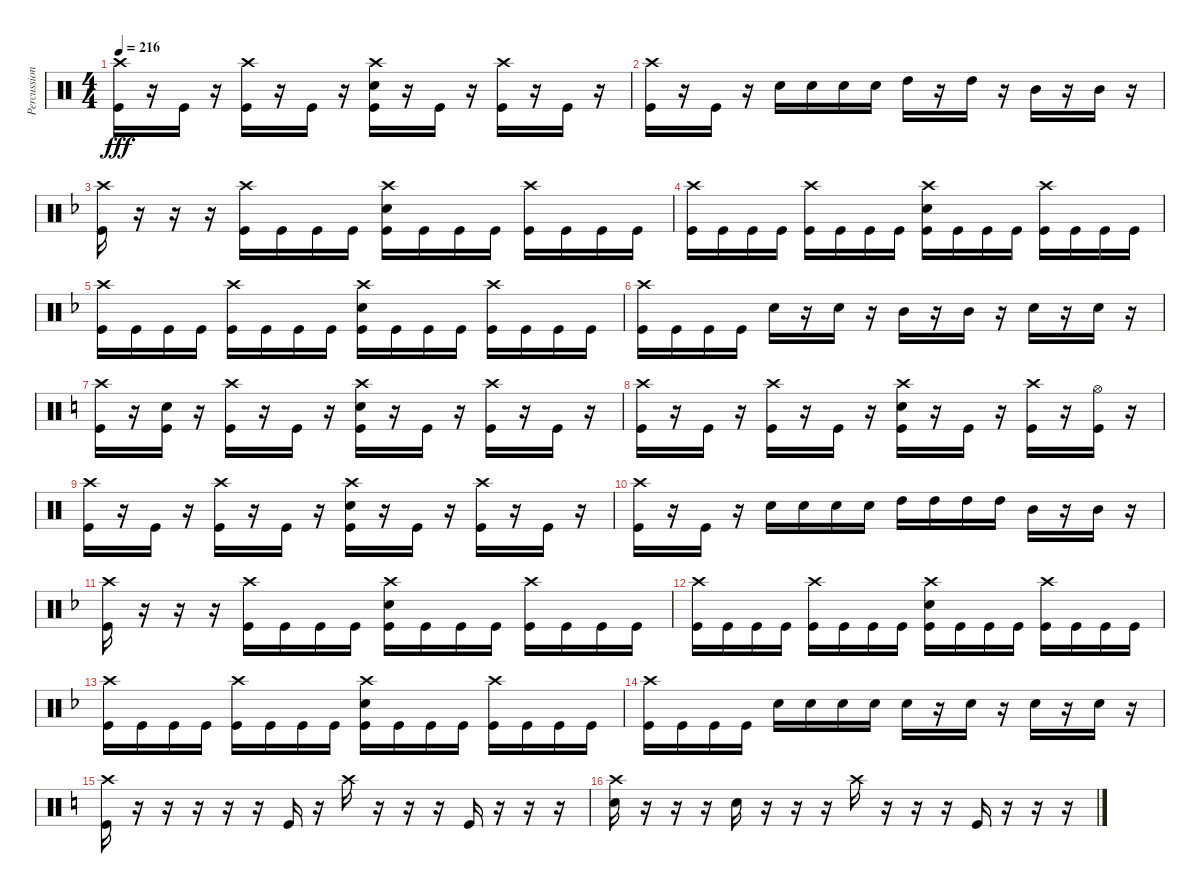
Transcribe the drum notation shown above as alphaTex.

\track ("Percussion" "Percussion") {instrument percussion}
\staff {score}
\articulation defaults
\ts (4 4)
\tempo 216
\clef neutral
\ks c
("Crash high (hit)" "Kick (hit)").16{dy fff} r.16 "Kick (hit)".16 r.16 ("Crash high (hit)" "Kick (hit)").16 r.16 "Kick (hit)".16 r.16 ("Crash high (hit)" "Electric Snare (hit)" "Kick (hit)").16 r.16 "Kick (hit)".16 r.16 ("Crash high (hit)" "Kick (hit)").16 r.16 "Kick (hit)".16 r.16 |
("Crash high (hit)" "Kick (hit)").16 r.16 "Kick (hit)".16 r.16 "Electric Snare (hit)".16 "Electric Snare (hit)".16 "Electric Snare (hit)".16 "Electric Snare (hit)".16 "High Tom (hit)".16 r.16 "High Tom (hit)".16 r.16 "Mid Tom (hit)".16 r.16 "Mid Tom (hit)".16 r.16 |
\ks f
("Crash high (hit)" "Kick (hit)").16 r.16 r.16 r.16 ("Crash high (hit)" "Kick (hit)").16 "Kick (hit)".16 "Kick (hit)".16 "Kick (hit)".16 ("Crash high (hit)" "Electric Snare (hit)" "Kick (hit)").16 "Kick (hit)".16 "Kick (hit)".16 "Kick (hit)".16 ("Crash high (hit)" "Kick (hit)").16 "Kick (hit)".16 "Kick (hit)".16 "Kick (hit)".16 |
("Crash high (hit)" "Kick (hit)").16 "Kick (hit)".16 "Kick (hit)".16 "Kick (hit)".16 ("Crash high (hit)" "Kick (hit)").16 "Kick (hit)".16 "Kick (hit)".16 "Kick (hit)".16 ("Crash high (hit)" "Electric Snare (hit)" "Kick (hit)").16 "Kick (hit)".16 "Kick (hit)".16 "Kick (hit)".16 ("Crash high (hit)" "Kick (hit)").16 "Kick (hit)".16 "Kick (hit)".16 "Kick (hit)".16 |
("Crash high (hit)" "Kick (hit)").16 "Kick (hit)".16 "Kick (hit)".16 "Kick (hit)".16 ("Crash high (hit)" "Kick (hit)").16 "Kick (hit)".16 "Kick (hit)".16 "Kick (hit)".16 ("Crash high (hit)" "Electric Snare (hit)" "Kick (hit)").16 "Kick (hit)".16 "Kick (hit)".16 "Kick (hit)".16 ("Crash high (hit)" "Kick (hit)").16 "Kick (hit)".16 "Kick (hit)".16 "Kick (hit)".16 |
("Crash high (hit)" "Kick (hit)").16 "Kick (hit)".16 "Kick (hit)".16 "Kick (hit)".16 "Electric Snare (hit)".16 r.16 "Electric Snare (hit)".16 r.16 "Mid Tom (hit)".16 r.16 "Mid Tom (hit)".16 r.16 "Electric Snare (hit)".16 r.16 "Electric Snare (hit)".16 r.16 |
\ks c
("Crash high (hit)" "Kick (hit)").16 r.16 ("Electric Snare (hit)" "Kick (hit)").16 r.16 ("Crash high (hit)" "Kick (hit)").16 r.16 "Kick (hit)".16 r.16 ("Crash high (hit)" "Electric Snare (hit)" "Kick (hit)").16 r.16 "Kick (hit)".16 r.16 ("Crash high (hit)" "Kick (hit)").16 r.16 "Kick (hit)".16 r.16 |
("Crash high (hit)" "Kick (hit)").16 r.16 "Kick (hit)".16 r.16 ("Crash high (hit)" "Kick (hit)").16 r.16 "Kick (hit)".16 r.16 ("Crash high (hit)" "Electric Snare (hit)" "Kick (hit)").16 r.16 "Kick (hit)".16 r.16 ("Crash high (hit)" "Kick (hit)").16 r.16 ("Hi-Hat (open)" "Kick (hit)").16 r.16 |
("Crash high (hit)" "Kick (hit)").16 r.16 "Kick (hit)".16 r.16 ("Crash high (hit)" "Kick (hit)").16 r.16 "Kick (hit)".16 r.16 ("Crash high (hit)" "Electric Snare (hit)" "Kick (hit)").16 r.16 "Kick (hit)".16 r.16 ("Crash high (hit)" "Kick (hit)").16 r.16 "Kick (hit)".16 r.16 |
("Crash high (hit)" "Kick (hit)").16 r.16 "Kick (hit)".16 r.16 "Electric Snare (hit)".16 "Electric Snare (hit)".16 "Electric Snare (hit)".16 "Electric Snare (hit)".16 "High Tom (hit)".16 "High Tom (hit)".16 "High Tom (hit)".16 "High Tom (hit)".16 "Mid Tom (hit)".16 r.16 "Mid Tom (hit)".16 r.16 |
\ks f
("Crash high (hit)" "Kick (hit)").16 r.16 r.16 r.16 ("Crash high (hit)" "Kick (hit)").16 "Kick (hit)".16 "Kick (hit)".16 "Kick (hit)".16 ("Crash high (hit)" "Electric Snare (hit)" "Kick (hit)").16 "Kick (hit)".16 "Kick (hit)".16 "Kick (hit)".16 ("Crash high (hit)" "Kick (hit)").16 "Kick (hit)".16 "Kick (hit)".16 "Kick (hit)".16 |
("Crash high (hit)" "Kick (hit)").16 "Kick (hit)".16 "Kick (hit)".16 "Kick (hit)".16 ("Crash high (hit)" "Kick (hit)").16 "Kick (hit)".16 "Kick (hit)".16 "Kick (hit)".16 ("Crash high (hit)" "Electric Snare (hit)" "Kick (hit)").16 "Kick (hit)".16 "Kick (hit)".16 "Kick (hit)".16 ("Crash high (hit)" "Kick (hit)").16 "Kick (hit)".16 "Kick (hit)".16 "Kick (hit)".16 |
("Crash high (hit)" "Kick (hit)").16 "Kick (hit)".16 "Kick (hit)".16 "Kick (hit)".16 ("Crash high (hit)" "Kick (hit)").16 "Kick (hit)".16 "Kick (hit)".16 "Kick (hit)".16 ("Crash high (hit)" "Electric Snare (hit)" "Kick (hit)").16 "Kick (hit)".16 "Kick (hit)".16 "Kick (hit)".16 ("Crash high (hit)" "Kick (hit)").16 "Kick (hit)".16 "Kick (hit)".16 "Kick (hit)".16 |
("Crash high (hit)" "Kick (hit)").16 "Kick (hit)".16 "Kick (hit)".16 "Kick (hit)".16 "Electric Snare (hit)".16 "Electric Snare (hit)".16 "Electric Snare (hit)".16 "Electric Snare (hit)".16 "Electric Snare (hit)".16 r.16 "Electric Snare (hit)".16 r.16 "Electric Snare (hit)".16 r.16 "Electric Snare (hit)".16 r.16 |
\ks c
("Crash high (hit)" "Kick (hit)").16 r.16 r.16 r.16 r.16 r.16 "Kick (hit)".16 r.16 "Crash high (hit)".16 r.16 r.16 r.16 "Kick (hit)".16 r.16 r.16 r.16 |
("Crash high (hit)" "Electric Snare (hit)").16 r.16 r.16 r.16 "Electric Snare (hit)".16 r.16 r.16 r.16 "Crash high (hit)".16 r.16 r.16 r.16 "Kick (hit)".16 r.16 r.16 r.16
